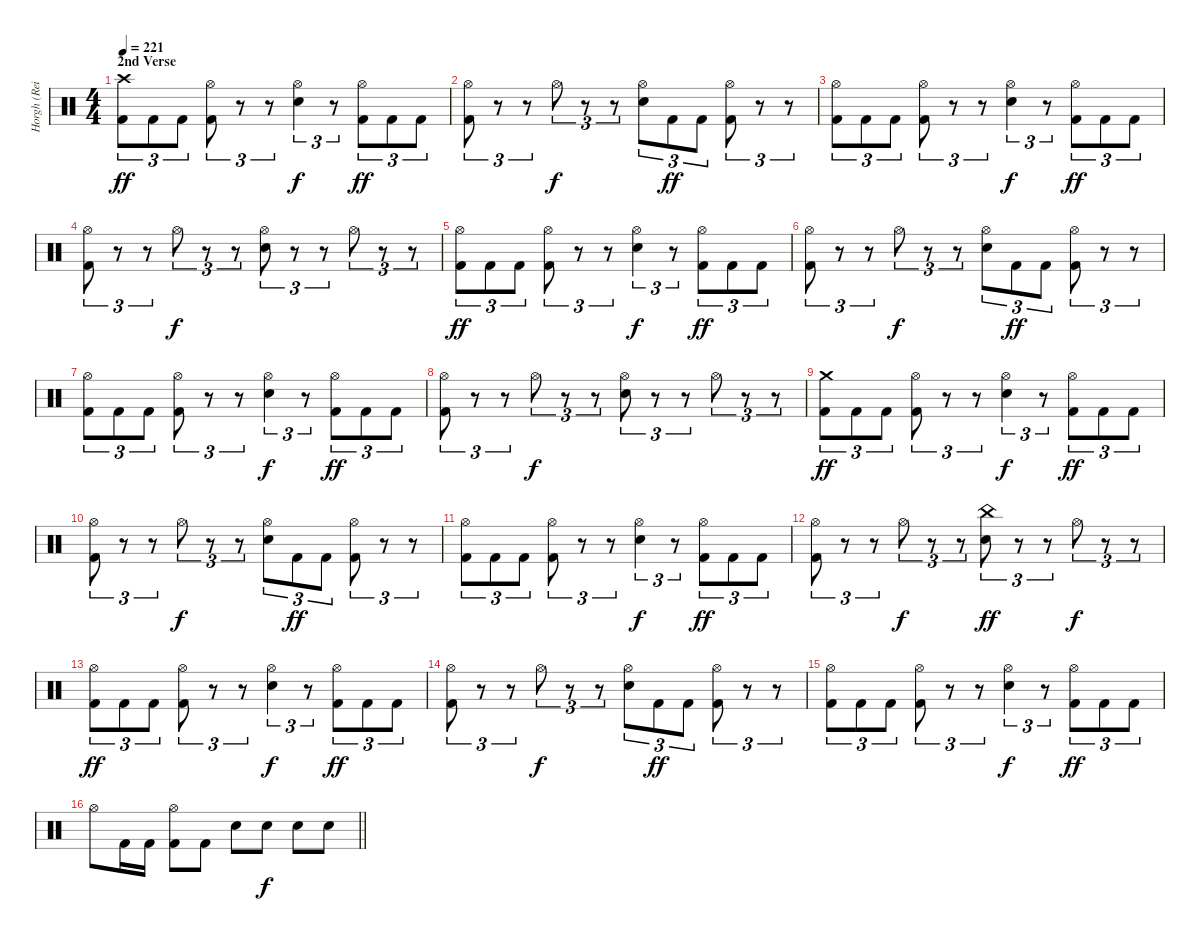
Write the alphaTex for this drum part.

\track ("Horgh (Reidar Horghagen)" "Horgh (Rei") {instrument percussion}
\staff {score}
\articulation defaults
\ts (4 4)
\section ("" "2nd Verse")
\tempo 221
\clef neutral
\ks c
("Crash high (hit)" "Kick (hit) 2").8{tu (3 2) dy ff} "Kick (hit) 2".8{tu (3 2)} "Kick (hit) 2".8{tu (3 2)} ("Hi-Hat (open)" "Kick (hit) 2").8{tu (3 2)} r.8{tu (3 2)} r.8{tu (3 2)} ("Hi-Hat (open)" "Snare (hit) 2").4{tu (3 2) dy f} r.8{tu (3 2)} ("Hi-Hat (open)" "Kick (hit) 2").8{tu (3 2) dy ff} "Kick (hit) 2".8{tu (3 2)} "Kick (hit) 2".8{tu (3 2)} |
("Hi-Hat (open)" "Kick (hit) 2").8{tu (3 2)} r.8{tu (3 2)} r.8{tu (3 2)} "Hi-Hat (open)".8{tu (3 2) dy f} r.8{tu (3 2)} r.8{tu (3 2)} ("Hi-Hat (open)" "Snare (hit) 2").8{tu (3 2)} "Kick (hit) 2".8{tu (3 2) dy ff} "Kick (hit) 2".8{tu (3 2)} ("Hi-Hat (open)" "Kick (hit) 2").8{tu (3 2)} r.8{tu (3 2)} r.8{tu (3 2)} |
("Hi-Hat (open)" "Kick (hit) 2").8{tu (3 2)} "Kick (hit) 2".8{tu (3 2)} "Kick (hit) 2".8{tu (3 2)} ("Hi-Hat (open)" "Kick (hit) 2").8{tu (3 2)} r.8{tu (3 2)} r.8{tu (3 2)} ("Hi-Hat (open)" "Snare (hit) 2").4{tu (3 2) dy f} r.8{tu (3 2)} ("Hi-Hat (open)" "Kick (hit) 2").8{tu (3 2) dy ff} "Kick (hit) 2".8{tu (3 2)} "Kick (hit) 2".8{tu (3 2)} |
("Hi-Hat (open)" "Kick (hit) 2").8{tu (3 2)} r.8{tu (3 2)} r.8{tu (3 2)} "Hi-Hat (open)".8{tu (3 2) dy f} r.8{tu (3 2)} r.8{tu (3 2)} ("Hi-Hat (open)" "Snare (hit) 2").8{tu (3 2)} r.8{tu (3 2)} r.8{tu (3 2)} "Hi-Hat (open)".8{tu (3 2)} r.8{tu (3 2)} r.8{tu (3 2)} |
("Hi-Hat (open)" "Kick (hit) 2").8{tu (3 2) dy ff} "Kick (hit) 2".8{tu (3 2)} "Kick (hit) 2".8{tu (3 2)} ("Hi-Hat (open)" "Kick (hit) 2").8{tu (3 2)} r.8{tu (3 2)} r.8{tu (3 2)} ("Hi-Hat (open)" "Snare (hit) 2").4{tu (3 2) dy f} r.8{tu (3 2)} ("Hi-Hat (open)" "Kick (hit) 2").8{tu (3 2) dy ff} "Kick (hit) 2".8{tu (3 2)} "Kick (hit) 2".8{tu (3 2)} |
("Hi-Hat (open)" "Kick (hit) 2").8{tu (3 2)} r.8{tu (3 2)} r.8{tu (3 2)} "Hi-Hat (open)".8{tu (3 2) dy f} r.8{tu (3 2)} r.8{tu (3 2)} ("Hi-Hat (open)" "Snare (hit) 2").8{tu (3 2)} "Kick (hit) 2".8{tu (3 2) dy ff} "Kick (hit) 2".8{tu (3 2)} ("Hi-Hat (open)" "Kick (hit) 2").8{tu (3 2)} r.8{tu (3 2)} r.8{tu (3 2)} |
("Hi-Hat (open)" "Kick (hit) 2").8{tu (3 2)} "Kick (hit) 2".8{tu (3 2)} "Kick (hit) 2".8{tu (3 2)} ("Hi-Hat (open)" "Kick (hit) 2").8{tu (3 2)} r.8{tu (3 2)} r.8{tu (3 2)} ("Hi-Hat (open)" "Snare (hit) 2").4{tu (3 2) dy f} r.8{tu (3 2)} ("Hi-Hat (open)" "Kick (hit) 2").8{tu (3 2) dy ff} "Kick (hit) 2".8{tu (3 2)} "Kick (hit) 2".8{tu (3 2)} |
("Hi-Hat (open)" "Kick (hit) 2").8{tu (3 2)} r.8{tu (3 2)} r.8{tu (3 2)} "Hi-Hat (open)".8{tu (3 2) dy f} r.8{tu (3 2)} r.8{tu (3 2)} ("Hi-Hat (open)" "Snare (hit) 2").8{tu (3 2)} r.8{tu (3 2)} r.8{tu (3 2)} "Hi-Hat (open)".8{tu (3 2)} r.8{tu (3 2)} r.8{tu (3 2)} |
("Crash medium (hit)" "Kick (hit) 2").8{tu (3 2) dy ff} "Kick (hit) 2".8{tu (3 2)} "Kick (hit) 2".8{tu (3 2)} ("Hi-Hat (open)" "Kick (hit) 2").8{tu (3 2)} r.8{tu (3 2)} r.8{tu (3 2)} ("Hi-Hat (open)" "Snare (hit) 2").4{tu (3 2) dy f} r.8{tu (3 2)} ("Hi-Hat (open)" "Kick (hit) 2").8{tu (3 2) dy ff} "Kick (hit) 2".8{tu (3 2)} "Kick (hit) 2".8{tu (3 2)} |
("Hi-Hat (open)" "Kick (hit) 2").8{tu (3 2)} r.8{tu (3 2)} r.8{tu (3 2)} "Hi-Hat (open)".8{tu (3 2) dy f} r.8{tu (3 2)} r.8{tu (3 2)} ("Hi-Hat (open)" "Snare (hit) 2").8{tu (3 2)} "Kick (hit) 2".8{tu (3 2) dy ff} "Kick (hit) 2".8{tu (3 2)} ("Hi-Hat (open)" "Kick (hit) 2").8{tu (3 2)} r.8{tu (3 2)} r.8{tu (3 2)} |
("Hi-Hat (open)" "Kick (hit) 2").8{tu (3 2)} "Kick (hit) 2".8{tu (3 2)} "Kick (hit) 2".8{tu (3 2)} ("Hi-Hat (open)" "Kick (hit) 2").8{tu (3 2)} r.8{tu (3 2)} r.8{tu (3 2)} ("Hi-Hat (open)" "Snare (hit) 2").4{tu (3 2) dy f} r.8{tu (3 2)} ("Hi-Hat (open)" "Kick (hit) 2").8{tu (3 2) dy ff} "Kick (hit) 2".8{tu (3 2)} "Kick (hit) 2".8{tu (3 2)} |
("Hi-Hat (open)" "Kick (hit) 2").8{tu (3 2)} r.8{tu (3 2)} r.8{tu (3 2)} "Hi-Hat (open)".8{tu (3 2) dy f} r.8{tu (3 2)} r.8{tu (3 2)} ("China (hit)" "Snare (hit) 2").8{tu (3 2) dy ff} r.8{tu (3 2)} r.8{tu (3 2)} "Hi-Hat (open)".8{tu (3 2) dy f} r.8{tu (3 2)} r.8{tu (3 2)} |
("Hi-Hat (open)" "Kick (hit) 2").8{tu (3 2) dy ff} "Kick (hit) 2".8{tu (3 2)} "Kick (hit) 2".8{tu (3 2)} ("Hi-Hat (open)" "Kick (hit) 2").8{tu (3 2)} r.8{tu (3 2)} r.8{tu (3 2)} ("Hi-Hat (open)" "Snare (hit) 2").4{tu (3 2) dy f} r.8{tu (3 2)} ("Hi-Hat (open)" "Kick (hit) 2").8{tu (3 2) dy ff} "Kick (hit) 2".8{tu (3 2)} "Kick (hit) 2".8{tu (3 2)} |
("Hi-Hat (open)" "Kick (hit) 2").8{tu (3 2)} r.8{tu (3 2)} r.8{tu (3 2)} "Hi-Hat (open)".8{tu (3 2) dy f} r.8{tu (3 2)} r.8{tu (3 2)} ("Hi-Hat (open)" "Snare (hit) 2").8{tu (3 2)} "Kick (hit) 2".8{tu (3 2) dy ff} "Kick (hit) 2".8{tu (3 2)} ("Hi-Hat (open)" "Kick (hit) 2").8{tu (3 2)} r.8{tu (3 2)} r.8{tu (3 2)} |
("Hi-Hat (open)" "Kick (hit) 2").8{tu (3 2)} "Kick (hit) 2".8{tu (3 2)} "Kick (hit) 2".8{tu (3 2)} ("Hi-Hat (open)" "Kick (hit) 2").8{tu (3 2)} r.8{tu (3 2)} r.8{tu (3 2)} ("Hi-Hat (open)" "Snare (hit) 2").4{tu (3 2) dy f} r.8{tu (3 2)} ("Hi-Hat (open)" "Kick (hit) 2").8{tu (3 2) dy ff} "Kick (hit) 2".8{tu (3 2)} "Kick (hit) 2".8{tu (3 2)} |
\barLineRight lightlight "Hi-Hat (open)".8 "Kick (hit) 2".16 "Kick (hit) 2".16
("Hi-Hat (open)" "Kick (hit) 2").8 "Kick (hit) 2".8 "Snare (hit) 2".8 "Snare (hit) 2".8{dy f} "Snare (hit) 2".8 "Snare (hit) 2".8
